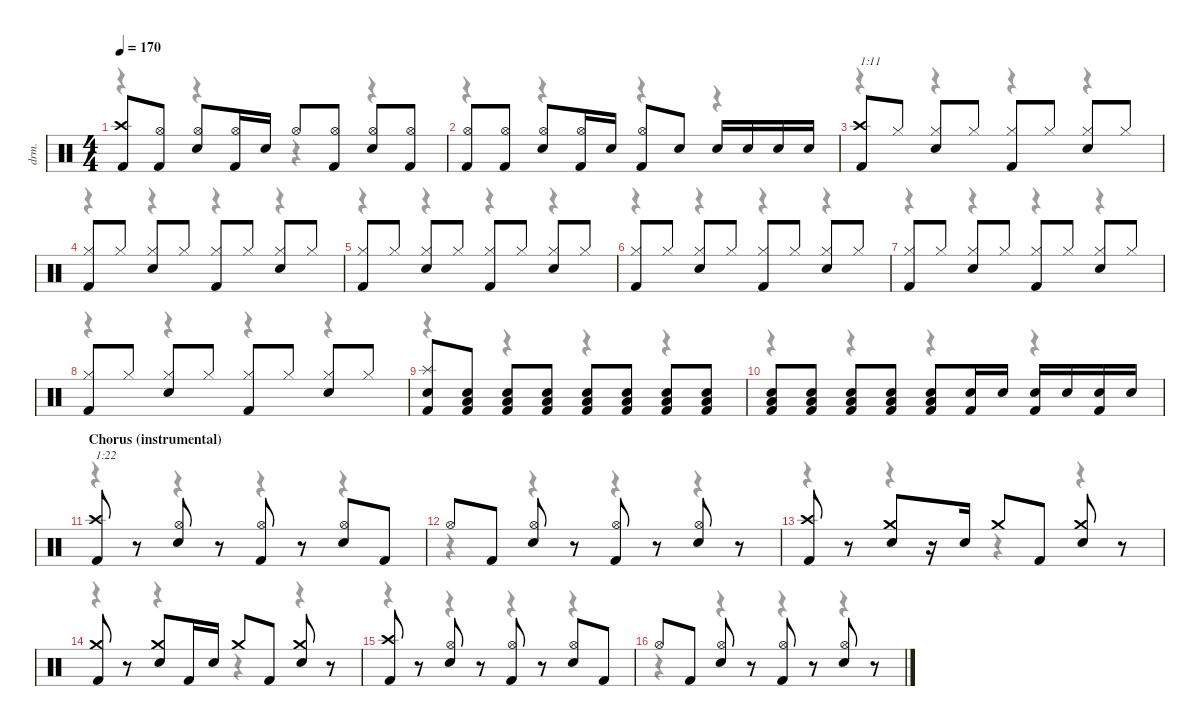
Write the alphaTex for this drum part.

\defaultSystemsLayout 4
\hideDynamics
\bracketExtendMode nobrackets
\otherSystemsTrackNameOrientation horizontal
\track ("Drums" "drm.") {instrument percussion}
\staff {score}
\articulation defaults
\voice
\ts (4 4)
\tempo 170
\clef neutral
\ks c
("Crash high (hit)" "Kick (hit) 2").8{dy f beam Up} ("Hi-Hat (open)" "Kick (hit) 2").8{beam Up} ("Hi-Hat (open)" "Snare (hit) 2").8{beam Up} ("Hi-Hat (open)" "Kick (hit) 2").16{beam Up} "Snare (hit) 2".16{beam Up} "Hi-Hat (open)".8{beam Up} ("Hi-Hat (open)" "Kick (hit) 2").8{beam Up} ("Hi-Hat (open)" "Snare (hit) 2").8{beam Up} ("Hi-Hat (open)" "Kick (hit) 2").8{beam Up} |
("Hi-Hat (open)" "Kick (hit) 2").8{beam Up} ("Hi-Hat (open)" "Kick (hit) 2").8{beam Up} ("Hi-Hat (open)" "Snare (hit) 2").8{beam Up} ("Hi-Hat (open)" "Kick (hit) 2").16{beam Up} "Snare (hit) 2".16{beam Up} ("Hi-Hat (open)" "Kick (hit) 2").8{beam Up} "Snare (hit) 2".8{beam Up} "Snare (hit) 2".16{beam Up} "Snare (hit) 2".16{beam Up} "Snare (hit) 2".16{beam Up} "Snare (hit) 2".16{beam Up} |
("Crash high (hit)" "Kick (hit) 2").8{txt "1:11" beam Up} "Hi-Hat (closed)".8{beam Up} ("Hi-Hat (closed)" "Snare (hit) 2").8{beam Up} "Hi-Hat (closed)".8{beam Up} ("Hi-Hat (closed)" "Kick (hit) 2").8{beam Up} "Hi-Hat (closed)".8{beam Up} ("Hi-Hat (closed)" "Snare (hit) 2").8{beam Up} "Hi-Hat (closed)".8{beam Up} |
("Hi-Hat (closed)" "Kick (hit) 2").8{beam Up} "Hi-Hat (closed)".8{beam Up} ("Hi-Hat (closed)" "Snare (hit) 2").8{beam Up} "Hi-Hat (closed)".8{beam Up} ("Hi-Hat (closed)" "Kick (hit) 2").8{beam Up} "Hi-Hat (closed)".8{beam Up} ("Hi-Hat (closed)" "Snare (hit) 2").8{beam Up} "Hi-Hat (closed)".8{beam Up} |
("Hi-Hat (closed)" "Kick (hit) 2").8{beam Up} "Hi-Hat (closed)".8{beam Up} ("Hi-Hat (closed)" "Snare (hit) 2").8{beam Up} "Hi-Hat (closed)".8{beam Up} ("Hi-Hat (closed)" "Kick (hit) 2").8{beam Up} "Hi-Hat (closed)".8{beam Up} ("Hi-Hat (closed)" "Snare (hit) 2").8{beam Up} "Hi-Hat (closed)".8{beam Up} |
("Hi-Hat (closed)" "Kick (hit) 2").8{beam Up} "Hi-Hat (closed)".8{beam Up} ("Hi-Hat (closed)" "Snare (hit) 2").8{beam Up} "Hi-Hat (closed)".8{beam Up} ("Hi-Hat (closed)" "Kick (hit) 2").8{beam Up} "Hi-Hat (closed)".8{beam Up} ("Hi-Hat (closed)" "Snare (hit) 2").8{beam Up} "Hi-Hat (closed)".8{beam Up} |
("Hi-Hat (closed)" "Kick (hit) 2").8{beam Up} "Hi-Hat (closed)".8{beam Up} ("Hi-Hat (closed)" "Snare (hit) 2").8{beam Up} "Hi-Hat (closed)".8{beam Up} ("Hi-Hat (closed)" "Kick (hit) 2").8{beam Up} "Hi-Hat (closed)".8{beam Up} ("Hi-Hat (closed)" "Snare (hit) 2").8{beam Up} "Hi-Hat (closed)".8{beam Up} |
("Hi-Hat (closed)" "Kick (hit) 2").8{beam Up} "Hi-Hat (closed)".8{beam Up} ("Hi-Hat (closed)" "Snare (hit) 2").8{beam Up} "Hi-Hat (closed)".8{beam Up} ("Hi-Hat (closed)" "Kick (hit) 2").8{beam Up} "Hi-Hat (closed)".8{beam Up} ("Hi-Hat (closed)" "Snare (hit) 2").8{beam Up} "Hi-Hat (closed)".8{beam Up} |
("Splash (hit)" "Snare (hit) 2" "Kick (hit) 2").8{beam Up} ("Low Floor Tom (hit)" "Snare (hit) 2" "Kick (hit) 2").8{beam Up} ("Low Floor Tom (hit)" "Snare (hit) 2" "Kick (hit) 2").8{beam Up} ("Low Floor Tom (hit)" "Snare (hit) 2" "Kick (hit) 2").8{beam Up} ("Low Floor Tom (hit)" "Snare (hit) 2" "Kick (hit) 2").8{beam Up} ("Low Floor Tom (hit)" "Snare (hit) 2" "Kick (hit) 2").8{beam Up} ("Low Floor Tom (hit)" "Snare (hit) 2" "Kick (hit) 2").8{beam Up} ("Low Floor Tom (hit)" "Snare (hit) 2" "Kick (hit) 2").8{beam Up} |
("Low Floor Tom (hit)" "Snare (hit) 2" "Kick (hit) 2").8{beam Up} ("Low Floor Tom (hit)" "Snare (hit) 2" "Kick (hit) 2").8{beam Up} ("Low Floor Tom (hit)" "Snare (hit) 2" "Kick (hit) 2").8{beam Up} ("Low Floor Tom (hit)" "Snare (hit) 2" "Kick (hit) 2").8{beam Up} ("Low Floor Tom (hit)" "Snare (hit) 2" "Kick (hit) 2").8{beam Up} ("Snare (hit) 2" "Kick (hit) 2").16{beam Up} "Snare (hit) 2".16{beam Up} ("Snare (hit) 2" "Kick (hit) 2").16{beam Up} "Snare (hit) 2".16{beam Up} ("Snare (hit) 2" "Kick (hit) 2").16{beam Up} "Snare (hit) 2".16{beam Up} |
\section ("" "Chorus (instrumental)")
("Crash high (hit)" "Kick (hit) 2").8{txt "1:22" beam Up} r.8{beam Up} ("Hi-Hat (open)" "Snare (hit) 2").8{beam Up} r.8{beam Up} ("Hi-Hat (open)" "Kick (hit) 2").8{beam Up} r.8{beam Up} ("Hi-Hat (open)" "Snare (hit) 2").8{beam Up} "Kick (hit) 2".8{beam Up} |
"Hi-Hat (open)".8{beam Up} "Kick (hit) 2".8{beam Up} ("Hi-Hat (open)" "Snare (hit) 2").8{beam Up} r.8{beam Up} ("Hi-Hat (open)" "Kick (hit) 2").8{beam Up} r.8{beam Up} ("Hi-Hat (open)" "Snare (hit) 2").8{beam Up} r.8{beam Up} |
("Crash high (hit)" "Kick (hit) 2").8{beam Up} r.8{beam Up} ("Crash medium (hit)" "Snare (hit) 2").8{beam Up} r.16{beam Up} "Snare (hit) 2".16{beam Up} "Crash medium (hit)".8{beam Up} "Kick (hit) 2".8{beam Up} ("Crash medium (hit)" "Snare (hit) 2").8{beam Up} r.8{beam Up} |
("Crash medium (hit)" "Kick (hit) 2").8{beam Up} r.8{beam Up} ("Crash medium (hit)" "Snare (hit) 2").8{beam Up} "Kick (hit) 2".16{beam Up} "Snare (hit) 2".16{beam Up} "Crash medium (hit)".8{beam Up} "Kick (hit) 2".8{beam Up} ("Crash medium (hit)" "Snare (hit) 2").8{beam Up} r.8{beam Up} |
("Crash high (hit)" "Kick (hit) 2").8{beam Up} r.8{beam Up} ("Hi-Hat (open)" "Snare (hit) 2").8{beam Up} r.8{beam Up} ("Hi-Hat (open)" "Kick (hit) 2").8{beam Up} r.8{beam Up} ("Hi-Hat (open)" "Snare (hit) 2").8{beam Up} "Kick (hit) 2".8{beam Up} |
"Hi-Hat (open)".8{beam Up} "Kick (hit) 2".8{beam Up} ("Hi-Hat (open)" "Snare (hit) 2").8{beam Up} r.8{beam Up} ("Hi-Hat (open)" "Kick (hit) 2").8{beam Up} r.8{beam Up} ("Hi-Hat (open)" "Snare (hit) 2").8{beam Up} r.8{beam Up}
\voice
\clef neutral
\ottava regular
\simile none
\ks c
r.4{dy mf beam Down} r.4{beam Down} r.4{beam Down} r.4{beam Down} |
r.4{beam Down} r.4{beam Down} r.4{beam Down} r.4{beam Down} |
r.4{beam Down} r.4{beam Down} r.4{beam Down} r.4{beam Down} |
r.4{beam Down} r.4{beam Down} r.4{beam Down} r.4{beam Down} |
r.4{beam Down} r.4{beam Down} r.4{beam Down} r.4{beam Down} |
r.4{beam Down} r.4{beam Down} r.4{beam Down} r.4{beam Down} |
r.4{beam Down} r.4{beam Down} r.4{beam Down} r.4{beam Down} |
r.4{beam Down} r.4{beam Down} r.4{beam Down} r.4{beam Down} |
r.4{beam Down} r.4{beam Down} r.4{beam Down} r.4{beam Down} |
r.4{beam Down} r.4{beam Down} r.4{beam Down} r.4{beam Down} |
r.4{beam Down} r.4{beam Down} r.4{beam Down} r.4{beam Down} |
r.4{beam Down} r.4{beam Down} r.4{beam Down} r.4{beam Down} |
r.4{beam Down} r.4{beam Down} r.4{beam Down} r.4{beam Down} |
r.4{beam Down} r.4{beam Down} r.4{beam Down} r.4{beam Down} |
r.4{beam Down} r.4{beam Down} r.4{beam Down} r.4{beam Down} |
r.4{beam Down} r.4{beam Down} r.4{beam Down} r.4{beam Down}
